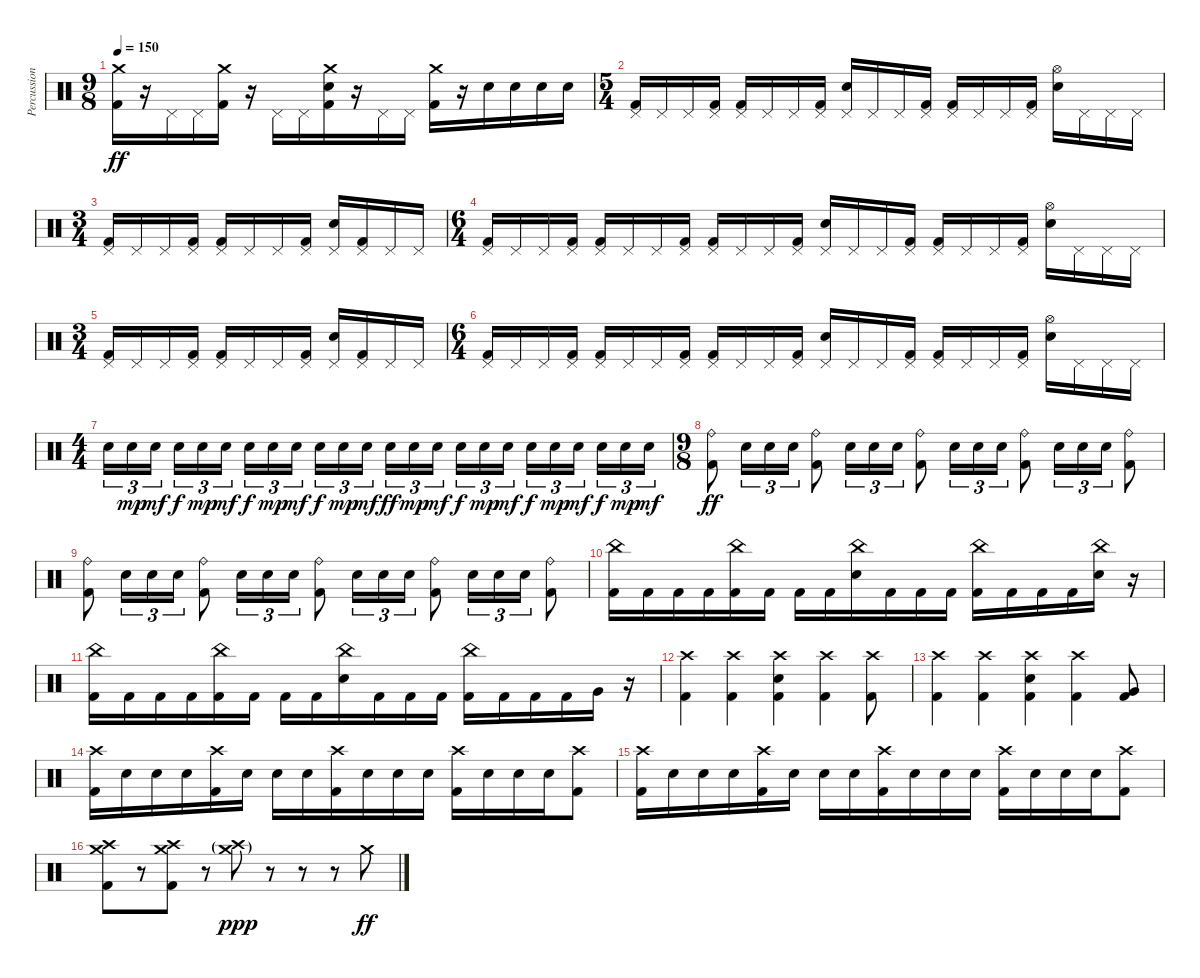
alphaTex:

\track ("Percussion" "Percussion") {instrument percussion}
\staff {score}
\articulation defaults
\ts (9 8)
\tempo 150
\clef neutral
\ks c
("Crash medium (hit)" "Kick (hit) 2").16{dy ff} r.16 "Pedal Hi-Hat (hit)".16 "Pedal Hi-Hat (hit)".16 ("Crash medium (hit)" "Kick (hit) 2").16 r.16 "Pedal Hi-Hat (hit)".16 "Pedal Hi-Hat (hit)".16 ("Crash medium (hit)" "Electric Snare (hit)" "Kick (hit) 2").16 r.16 "Pedal Hi-Hat (hit)".16 "Pedal Hi-Hat (hit)".16 ("Crash medium (hit)" "Kick (hit) 2").16 r.16 "Electric Snare (hit)".16 "Electric Snare (hit)".16 "Electric Snare (hit)".16 "Electric Snare (hit)".16 |
\ts (5 4)
("Pedal Hi-Hat (hit)" "Kick (hit) 2").16 "Pedal Hi-Hat (hit)".16 "Pedal Hi-Hat (hit)".16 ("Pedal Hi-Hat (hit)" "Kick (hit) 2").16 ("Pedal Hi-Hat (hit)" "Kick (hit) 2").16 "Pedal Hi-Hat (hit)".16 "Pedal Hi-Hat (hit)".16 ("Pedal Hi-Hat (hit)" "Kick (hit) 2").16 ("Pedal Hi-Hat (hit)" "Electric Snare (hit)").16 "Pedal Hi-Hat (hit)".16 "Pedal Hi-Hat (hit)".16 ("Pedal Hi-Hat (hit)" "Kick (hit) 2").16 ("Pedal Hi-Hat (hit)" "Kick (hit) 2").16 "Pedal Hi-Hat (hit)".16 "Pedal Hi-Hat (hit)".16 ("Pedal Hi-Hat (hit)" "Kick (hit) 2").16 ("Hi-Hat (open)" "Electric Snare (hit)").16 "Pedal Hi-Hat (hit)".16 "Pedal Hi-Hat (hit)".16 "Pedal Hi-Hat (hit)".16 |
\ts (3 4)
("Pedal Hi-Hat (hit)" "Kick (hit) 2").16 "Pedal Hi-Hat (hit)".16 "Pedal Hi-Hat (hit)".16 ("Pedal Hi-Hat (hit)" "Kick (hit) 2").16 ("Pedal Hi-Hat (hit)" "Kick (hit) 2").16 "Pedal Hi-Hat (hit)".16 "Pedal Hi-Hat (hit)".16 ("Pedal Hi-Hat (hit)" "Kick (hit) 2").16 ("Pedal Hi-Hat (hit)" "Electric Snare (hit)").16 ("Pedal Hi-Hat (hit)" "Kick (hit) 2").16 "Pedal Hi-Hat (hit)".16 "Pedal Hi-Hat (hit)".16 |
\ts (6 4)
("Pedal Hi-Hat (hit)" "Kick (hit) 2").16 "Pedal Hi-Hat (hit)".16 "Pedal Hi-Hat (hit)".16 ("Pedal Hi-Hat (hit)" "Kick (hit) 2").16 ("Pedal Hi-Hat (hit)" "Kick (hit) 2").16 "Pedal Hi-Hat (hit)".16 "Pedal Hi-Hat (hit)".16 ("Pedal Hi-Hat (hit)" "Kick (hit) 2").16 ("Pedal Hi-Hat (hit)" "Kick (hit) 2").16 "Pedal Hi-Hat (hit)".16 "Pedal Hi-Hat (hit)".16 ("Pedal Hi-Hat (hit)" "Kick (hit) 2").16 ("Pedal Hi-Hat (hit)" "Electric Snare (hit)").16 "Pedal Hi-Hat (hit)".16 "Pedal Hi-Hat (hit)".16 ("Pedal Hi-Hat (hit)" "Kick (hit) 2").16 ("Pedal Hi-Hat (hit)" "Kick (hit) 2").16 "Pedal Hi-Hat (hit)".16 "Pedal Hi-Hat (hit)".16 ("Pedal Hi-Hat (hit)" "Kick (hit) 2").16 ("Hi-Hat (open)" "Electric Snare (hit)").16 "Pedal Hi-Hat (hit)".16 "Pedal Hi-Hat (hit)".16 "Pedal Hi-Hat (hit)".16 |
\ts (3 4)
("Pedal Hi-Hat (hit)" "Kick (hit) 2").16 "Pedal Hi-Hat (hit)".16 "Pedal Hi-Hat (hit)".16 ("Pedal Hi-Hat (hit)" "Kick (hit) 2").16 ("Pedal Hi-Hat (hit)" "Kick (hit) 2").16 "Pedal Hi-Hat (hit)".16 "Pedal Hi-Hat (hit)".16 ("Pedal Hi-Hat (hit)" "Kick (hit) 2").16 ("Pedal Hi-Hat (hit)" "Electric Snare (hit)").16 ("Pedal Hi-Hat (hit)" "Kick (hit) 2").16 "Pedal Hi-Hat (hit)".16 "Pedal Hi-Hat (hit)".16 |
\ts (6 4)
("Pedal Hi-Hat (hit)" "Kick (hit) 2").16 "Pedal Hi-Hat (hit)".16 "Pedal Hi-Hat (hit)".16 ("Pedal Hi-Hat (hit)" "Kick (hit) 2").16 ("Pedal Hi-Hat (hit)" "Kick (hit) 2").16 "Pedal Hi-Hat (hit)".16 "Pedal Hi-Hat (hit)".16 ("Pedal Hi-Hat (hit)" "Kick (hit) 2").16 ("Pedal Hi-Hat (hit)" "Kick (hit) 2").16 "Pedal Hi-Hat (hit)".16 "Pedal Hi-Hat (hit)".16 ("Pedal Hi-Hat (hit)" "Kick (hit) 2").16 ("Pedal Hi-Hat (hit)" "Electric Snare (hit)").16 "Pedal Hi-Hat (hit)".16 "Pedal Hi-Hat (hit)".16 ("Pedal Hi-Hat (hit)" "Kick (hit) 2").16 ("Pedal Hi-Hat (hit)" "Kick (hit) 2").16 "Pedal Hi-Hat (hit)".16 "Pedal Hi-Hat (hit)".16 ("Pedal Hi-Hat (hit)" "Kick (hit) 2").16 ("Hi-Hat (open)" "Electric Snare (hit)").16 "Pedal Hi-Hat (hit)".16 "Pedal Hi-Hat (hit)".16 "Pedal Hi-Hat (hit)".16 |
\ts (4 4)
"Electric Snare (hit)".16{tu (3 2)} "Electric Snare (hit)".16{tu (3 2) dy mp} "Electric Snare (hit)".16{tu (3 2) dy mf beam splitsecondary} "Electric Snare (hit)".16{tu (3 2) dy f} "Electric Snare (hit)".16{tu (3 2) dy mp} "Electric Snare (hit)".16{tu (3 2) dy mf} "Electric Snare (hit)".16{tu (3 2) dy f} "Electric Snare (hit)".16{tu (3 2) dy mp} "Electric Snare (hit)".16{tu (3 2) dy mf beam splitsecondary} "Electric Snare (hit)".16{tu (3 2) dy f} "Electric Snare (hit)".16{tu (3 2) dy mp} "Electric Snare (hit)".16{tu (3 2) dy mf} "Electric Snare (hit)".16{tu (3 2) dy ff} "Electric Snare (hit)".16{tu (3 2) dy mp} "Electric Snare (hit)".16{tu (3 2) dy mf beam splitsecondary} "Electric Snare (hit)".16{tu (3 2) dy f} "Electric Snare (hit)".16{tu (3 2) dy mp} "Electric Snare (hit)".16{tu (3 2) dy mf} "Electric Snare (hit)".16{tu (3 2) dy f} "Electric Snare (hit)".16{tu (3 2) dy mp} "Electric Snare (hit)".16{tu (3 2) dy mf beam splitsecondary} "Electric Snare (hit)".16{tu (3 2) dy f} "Electric Snare (hit)".16{tu (3 2) dy mp} "Electric Snare (hit)".16{tu (3 2) dy mf} |
\ts (9 8)
("Ride (bell)" "Kick (hit) 2").8{dy ff} "Electric Snare (hit)".16{tu (3 2)} "Electric Snare (hit)".16{tu (3 2)} "Electric Snare (hit)".16{tu (3 2)} ("Ride (bell)" "Kick (hit) 2").8 "Electric Snare (hit)".16{tu (3 2)} "Electric Snare (hit)".16{tu (3 2)} "Electric Snare (hit)".16{tu (3 2)} ("Ride (bell)" "Kick (hit) 2").8 "Electric Snare (hit)".16{tu (3 2)} "Electric Snare (hit)".16{tu (3 2)} "Electric Snare (hit)".16{tu (3 2)} ("Ride (bell)" "Kick (hit) 2").8 "Electric Snare (hit)".16{tu (3 2)} "Electric Snare (hit)".16{tu (3 2)} "Electric Snare (hit)".16{tu (3 2)} ("Ride (bell)" "Kick (hit) 2").8 |
("Ride (bell)" "Kick (hit) 2").8 "Electric Snare (hit)".16{tu (3 2)} "Electric Snare (hit)".16{tu (3 2)} "Electric Snare (hit)".16{tu (3 2)} ("Ride (bell)" "Kick (hit) 2").8 "Electric Snare (hit)".16{tu (3 2)} "Electric Snare (hit)".16{tu (3 2)} "Electric Snare (hit)".16{tu (3 2)} ("Ride (bell)" "Kick (hit) 2").8 "Electric Snare (hit)".16{tu (3 2)} "Electric Snare (hit)".16{tu (3 2)} "Electric Snare (hit)".16{tu (3 2)} ("Ride (bell)" "Kick (hit) 2").8 "Electric Snare (hit)".16{tu (3 2)} "Electric Snare (hit)".16{tu (3 2)} "Electric Snare (hit)".16{tu (3 2)} ("Ride (bell)" "Kick (hit) 2").8 |
("China (hit)" "Kick (hit) 2").16 "Kick (hit) 2".16 "Kick (hit) 2".16 "Kick (hit) 2".16 ("China (hit)" "Kick (hit) 2").16 "Kick (hit) 2".16 "Kick (hit) 2".16 "Kick (hit) 2".16 ("China (hit)" "Electric Snare (hit)").16 "Kick (hit) 2".16 "Kick (hit) 2".16 "Kick (hit) 2".16 ("China (hit)" "Kick (hit) 2").16 "Kick (hit) 2".16 "Kick (hit) 2".16 "Kick (hit) 2".16 ("China (hit)" "Electric Snare (hit)").16 r.16 |
("China (hit)" "Kick (hit) 2").16 "Kick (hit) 2".16 "Kick (hit) 2".16 "Kick (hit) 2".16 ("China (hit)" "Kick (hit) 2").16 "Kick (hit) 2".16 "Kick (hit) 2".16 "Kick (hit) 2".16 ("China (hit)" "Electric Snare (hit)").16 "Kick (hit) 2".16 "Kick (hit) 2".16 "Kick (hit) 2".16 ("China (hit)" "Kick (hit) 2").16 "Kick (hit) 2".16 "Kick (hit) 2".16 "Kick (hit) 2".16 "Very Low Tom (hit)".16 r.16 |
("Crash high (hit)" "Kick (hit) 2").4 ("Crash high (hit)" "Kick (hit) 2").4 ("Crash high (hit)" "Electric Snare (hit)" "Kick (hit) 2").4 ("Crash high (hit)" "Kick (hit) 2").4 ("Crash high (hit)" "Kick (hit) 2").8 |
("Crash high (hit)" "Kick (hit) 2").4 ("Crash high (hit)" "Kick (hit) 2").4 ("Crash high (hit)" "Electric Snare (hit)" "Kick (hit) 2").4 ("Crash high (hit)" "Kick (hit) 2").4 ("Very Low Tom (hit)" "Kick (hit) 2").8 |
("Crash high (hit)" "Kick (hit) 2").16 "Electric Snare (hit)".16 "Electric Snare (hit)".16 "Electric Snare (hit)".16 ("Crash high (hit)" "Kick (hit) 2").16 "Electric Snare (hit)".16 "Electric Snare (hit)".16 "Electric Snare (hit)".16 ("Crash high (hit)" "Kick (hit) 2").16 "Electric Snare (hit)".16 "Electric Snare (hit)".16 "Electric Snare (hit)".16 ("Crash high (hit)" "Kick (hit) 2").16 "Electric Snare (hit)".16 "Electric Snare (hit)".16 "Electric Snare (hit)".16 ("Crash high (hit)" "Kick (hit) 2").8 |
("Crash high (hit)" "Kick (hit) 2").16 "Electric Snare (hit)".16 "Electric Snare (hit)".16 "Electric Snare (hit)".16 ("Crash high (hit)" "Kick (hit) 2").16 "Electric Snare (hit)".16 "Electric Snare (hit)".16 "Electric Snare (hit)".16 ("Crash high (hit)" "Kick (hit) 2").16 "Electric Snare (hit)".16 "Electric Snare (hit)".16 "Electric Snare (hit)".16 ("Crash high (hit)" "Kick (hit) 2").16 "Electric Snare (hit)".16 "Electric Snare (hit)".16 "Electric Snare (hit)".16 ("Crash high (hit)" "Kick (hit) 2").8 |
("Crash high (hit)" "Crash medium (hit)" "Kick (hit) 2").8 r.8 ("Crash high (hit)" "Crash medium (hit)" "Kick (hit) 2").8 r.8 ("Crash high (hit)"{g} "Crash medium (hit)"{g}).8{dy ppp} r.8 r.8 r.8 "Crash medium (hit)".8{dy ff}
